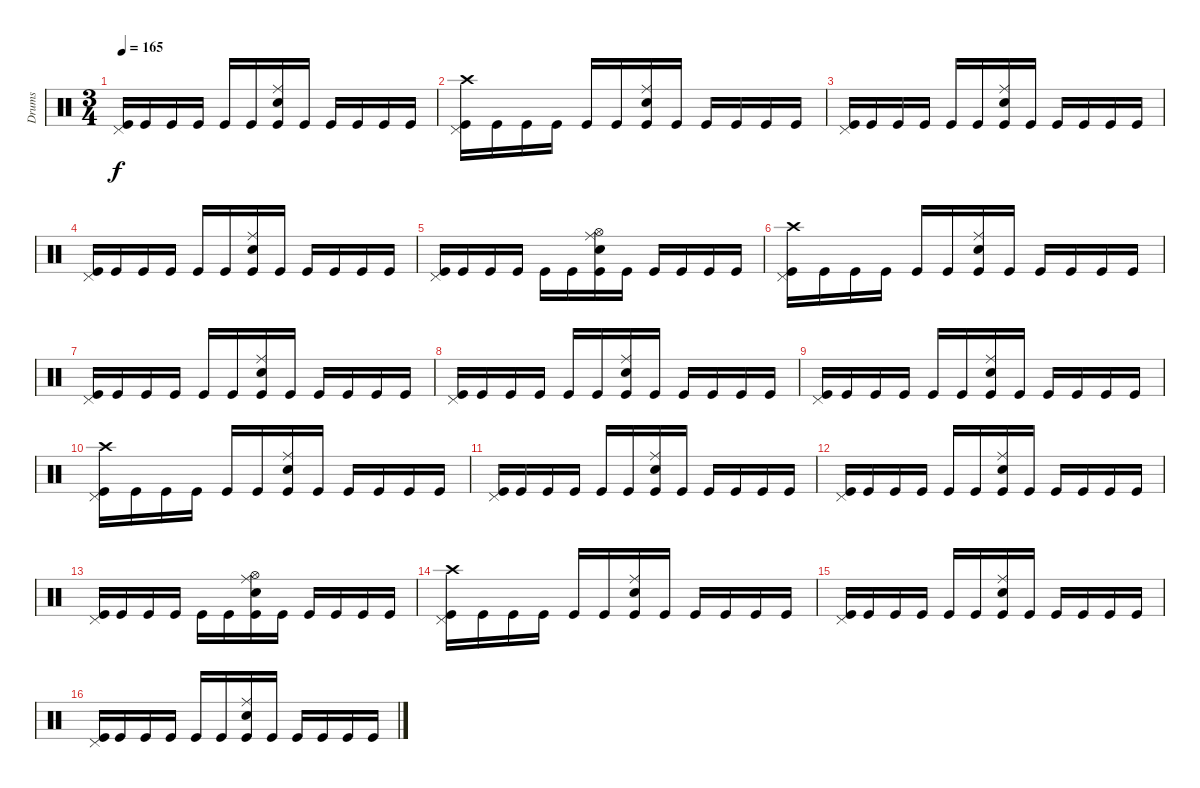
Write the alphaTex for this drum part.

\track ("Drums" "Drums") {instrument percussion}
\staff {score}
\articulation defaults
\ts (3 4)
\tempo 165
\clef neutral
\ks c
("Pedal Hi-Hat (hit)" "Kick (hit)").16{dy f} "Kick (hit)".16 "Kick (hit)".16 "Kick (hit)".16 "Kick (hit)".16 "Kick (hit)".16 ("Ride (middle)" "Snare (hit) 2" "Kick (hit)").16 "Kick (hit)".16 "Kick (hit)".16 "Kick (hit)".16 "Kick (hit)".16 "Kick (hit)".16 |
("Crash high (hit)" "Pedal Hi-Hat (hit)" "Kick (hit)").16 "Kick (hit)".16 "Kick (hit)".16 "Kick (hit)".16 "Kick (hit)".16 "Kick (hit)".16 ("Ride (middle)" "Snare (hit) 2" "Kick (hit)").16 "Kick (hit)".16 "Kick (hit)".16 "Kick (hit)".16 "Kick (hit)".16 "Kick (hit)".16 |
("Pedal Hi-Hat (hit)" "Kick (hit)").16 "Kick (hit)".16 "Kick (hit)".16 "Kick (hit)".16 "Kick (hit)".16 "Kick (hit)".16 ("Ride (middle)" "Snare (hit) 2" "Kick (hit)").16 "Kick (hit)".16 "Kick (hit)".16 "Kick (hit)".16 "Kick (hit)".16 "Kick (hit)".16 |
("Pedal Hi-Hat (hit)" "Kick (hit)").16 "Kick (hit)".16 "Kick (hit)".16 "Kick (hit)".16 "Kick (hit)".16 "Kick (hit)".16 ("Ride (middle)" "Snare (hit) 2" "Kick (hit)").16 "Kick (hit)".16 "Kick (hit)".16 "Kick (hit)".16 "Kick (hit)".16 "Kick (hit)".16 |
("Pedal Hi-Hat (hit)" "Kick (hit)").16 "Kick (hit)".16 "Kick (hit)".16 "Kick (hit)".16 "Kick (hit)".16 "Kick (hit)".16 ("Hi-Hat (open)" "Ride (middle)" "Snare (hit) 2" "Kick (hit)").16 "Kick (hit)".16 "Kick (hit)".16 "Kick (hit)".16 "Kick (hit)".16 "Kick (hit)".16 |
("Crash high (hit)" "Pedal Hi-Hat (hit)" "Kick (hit)").16 "Kick (hit)".16 "Kick (hit)".16 "Kick (hit)".16 "Kick (hit)".16 "Kick (hit)".16 ("Ride (middle)" "Snare (hit) 2" "Kick (hit)").16 "Kick (hit)".16 "Kick (hit)".16 "Kick (hit)".16 "Kick (hit)".16 "Kick (hit)".16 |
("Pedal Hi-Hat (hit)" "Kick (hit)").16 "Kick (hit)".16 "Kick (hit)".16 "Kick (hit)".16 "Kick (hit)".16 "Kick (hit)".16 ("Ride (middle)" "Snare (hit) 2" "Kick (hit)").16 "Kick (hit)".16 "Kick (hit)".16 "Kick (hit)".16 "Kick (hit)".16 "Kick (hit)".16 |
("Pedal Hi-Hat (hit)" "Kick (hit)").16 "Kick (hit)".16 "Kick (hit)".16 "Kick (hit)".16 "Kick (hit)".16 "Kick (hit)".16 ("Ride (middle)" "Snare (hit) 2" "Kick (hit)").16 "Kick (hit)".16 "Kick (hit)".16 "Kick (hit)".16 "Kick (hit)".16 "Kick (hit)".16 |
("Pedal Hi-Hat (hit)" "Kick (hit)").16 "Kick (hit)".16 "Kick (hit)".16 "Kick (hit)".16 "Kick (hit)".16 "Kick (hit)".16 ("Ride (middle)" "Snare (hit) 2" "Kick (hit)").16 "Kick (hit)".16 "Kick (hit)".16 "Kick (hit)".16 "Kick (hit)".16 "Kick (hit)".16 |
("Crash high (hit)" "Pedal Hi-Hat (hit)" "Kick (hit)").16 "Kick (hit)".16 "Kick (hit)".16 "Kick (hit)".16 "Kick (hit)".16 "Kick (hit)".16 ("Ride (middle)" "Snare (hit) 2" "Kick (hit)").16 "Kick (hit)".16 "Kick (hit)".16 "Kick (hit)".16 "Kick (hit)".16 "Kick (hit)".16 |
("Pedal Hi-Hat (hit)" "Kick (hit)").16 "Kick (hit)".16 "Kick (hit)".16 "Kick (hit)".16 "Kick (hit)".16 "Kick (hit)".16 ("Ride (middle)" "Snare (hit) 2" "Kick (hit)").16 "Kick (hit)".16 "Kick (hit)".16 "Kick (hit)".16 "Kick (hit)".16 "Kick (hit)".16 |
("Pedal Hi-Hat (hit)" "Kick (hit)").16 "Kick (hit)".16 "Kick (hit)".16 "Kick (hit)".16 "Kick (hit)".16 "Kick (hit)".16 ("Ride (middle)" "Snare (hit) 2" "Kick (hit)").16 "Kick (hit)".16 "Kick (hit)".16 "Kick (hit)".16 "Kick (hit)".16 "Kick (hit)".16 |
("Pedal Hi-Hat (hit)" "Kick (hit)").16 "Kick (hit)".16 "Kick (hit)".16 "Kick (hit)".16 "Kick (hit)".16 "Kick (hit)".16 ("Hi-Hat (open)" "Ride (middle)" "Snare (hit) 2" "Kick (hit)").16 "Kick (hit)".16 "Kick (hit)".16 "Kick (hit)".16 "Kick (hit)".16 "Kick (hit)".16 |
("Crash high (hit)" "Pedal Hi-Hat (hit)" "Kick (hit)").16 "Kick (hit)".16 "Kick (hit)".16 "Kick (hit)".16 "Kick (hit)".16 "Kick (hit)".16 ("Ride (middle)" "Snare (hit) 2" "Kick (hit)").16 "Kick (hit)".16 "Kick (hit)".16 "Kick (hit)".16 "Kick (hit)".16 "Kick (hit)".16 |
("Pedal Hi-Hat (hit)" "Kick (hit)").16 "Kick (hit)".16 "Kick (hit)".16 "Kick (hit)".16 "Kick (hit)".16 "Kick (hit)".16 ("Ride (middle)" "Snare (hit) 2" "Kick (hit)").16 "Kick (hit)".16 "Kick (hit)".16 "Kick (hit)".16 "Kick (hit)".16 "Kick (hit)".16 |
("Pedal Hi-Hat (hit)" "Kick (hit)").16 "Kick (hit)".16 "Kick (hit)".16 "Kick (hit)".16 "Kick (hit)".16 "Kick (hit)".16 ("Ride (middle)" "Snare (hit) 2" "Kick (hit)").16 "Kick (hit)".16 "Kick (hit)".16 "Kick (hit)".16 "Kick (hit)".16 "Kick (hit)".16
